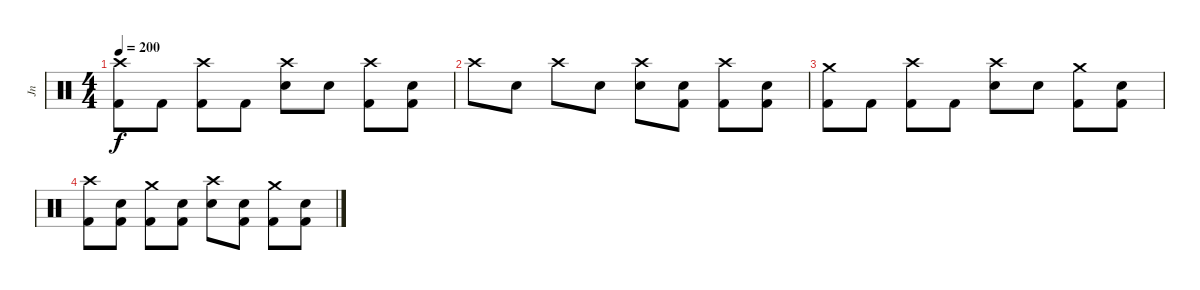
\track ("Jn" "Jn") {instrument percussion}
\staff {score}
\articulation defaults
\ts (4 4)
\tempo 200
\clef neutral
\ks c
("Crash high (hit)" "Kick (hit) 2").8{dy f} "Kick (hit) 2".8 ("Crash high (hit)" "Kick (hit) 2").8 "Kick (hit) 2".8 ("Crash high (hit)" "Electric Snare (hit)").8 "Snare (hit)".8 ("Crash high (hit)" "Kick (hit) 2").8 ("Snare (hit)" "Kick (hit) 2").8 |
"Crash high (hit)".8 "Snare (hit)".8 "Crash high (hit)".8 "Snare (hit)".8 ("Crash high (hit)" "Electric Snare (hit)").8 ("Snare (hit)" "Kick (hit) 2").8 ("Crash high (hit)" "Kick (hit) 2").8 ("Snare (hit)" "Kick (hit) 2").8 |
("Crash medium (hit)" "Kick (hit) 2").8 "Kick (hit) 2".8 ("Crash high (hit)" "Kick (hit) 2").8 "Kick (hit) 2".8 ("Crash high (hit)" "Electric Snare (hit)").8 "Snare (hit)".8 ("Crash medium (hit)" "Kick (hit) 2").8 ("Snare (hit)" "Kick (hit) 2").8 |
("Crash high (hit)" "Kick (hit) 2").8 ("Snare (hit)" "Kick (hit) 2").8 ("Crash medium (hit)" "Kick (hit) 2").8 ("Snare (hit)" "Kick (hit) 2").8 ("Crash high (hit)" "Electric Snare (hit)").8 ("Snare (hit)" "Kick (hit) 2").8 ("Crash medium (hit)" "Kick (hit) 2").8 ("Snare (hit)" "Kick (hit) 2").8
